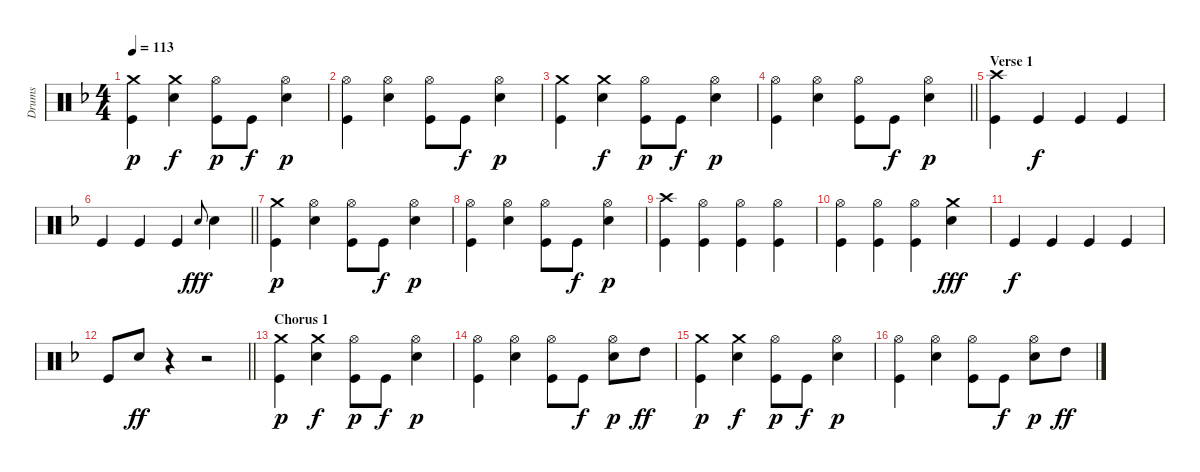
\track ("Drums" "Drums") {instrument percussion}
\staff {score}
\articulation defaults
\ts (4 4)
\tempo 113
\clef neutral
\ks dminor
("Kick (hit)" "Crash medium (hit)").4{dy p} ("Crash medium (hit)" "Electric Snare (hit)").4{dy f} ("Kick (hit)" "Hi-Hat (open)").8{dy p} "Kick (hit)".8{dy f} ("Electric Snare (hit)" "Hi-Hat (open)").4{dy p} |
("Kick (hit)" "Hi-Hat (open)").4 ("Hi-Hat (open)" "Electric Snare (hit)").4 ("Kick (hit)" "Hi-Hat (open)").8 "Kick (hit)".8{dy f} ("Electric Snare (hit)" "Hi-Hat (open)").4{dy p} |
("Kick (hit)" "Crash medium (hit)").4 ("Crash medium (hit)" "Electric Snare (hit)").4{dy f} ("Kick (hit)" "Hi-Hat (open)").8{dy p} "Kick (hit)".8{dy f} ("Electric Snare (hit)" "Hi-Hat (open)").4{dy p} |
\barLineRight lightlight
("Kick (hit)" "Hi-Hat (open)").4 ("Hi-Hat (open)" "Electric Snare (hit)").4 ("Kick (hit)" "Hi-Hat (open)").8 "Kick (hit)".8{dy f} ("Electric Snare (hit)" "Hi-Hat (open)").4{dy p} |
\section ("" "Verse 1")
("Kick (hit)" "Crash high (hit)").4 "Kick (hit)".4{dy f} "Kick (hit)".4 "Kick (hit)".4 |
\barLineRight lightlight "Kick (hit)".4 "Kick (hit)".4 "Kick (hit)".4 "Electric Snare (hit)".8{gr onbeat dy fff} "Electric Snare (hit)".4
|
("Kick (hit)" "Crash medium (hit)").4{dy p} ("Hi-Hat (open)" "Electric Snare (hit)").4 ("Kick (hit)" "Hi-Hat (open)").8 "Kick (hit)".8{dy f} ("Electric Snare (hit)" "Hi-Hat (open)").4{dy p} |
("Kick (hit)" "Hi-Hat (open)").4 ("Hi-Hat (open)" "Electric Snare (hit)").4 ("Kick (hit)" "Hi-Hat (open)").8 "Kick (hit)".8{dy f} ("Electric Snare (hit)" "Hi-Hat (open)").4{dy p} |
("Kick (hit)" "Crash high (hit)").4 ("Kick (hit)" "Hi-Hat (open)").4 ("Kick (hit)" "Hi-Hat (open)").4 ("Kick (hit)" "Hi-Hat (open)").4 |
("Kick (hit)" "Hi-Hat (open)").4 ("Kick (hit)" "Hi-Hat (open)").4 ("Kick (hit)" "Hi-Hat (open)").4 ("Crash medium (hit)" "Electric Snare (hit)").4{dy fff} |
"Kick (hit)".4{dy f} "Kick (hit)".4 "Kick (hit)".4 "Kick (hit)".4 |
\barLineRight lightlight "Kick (hit)".8 "Electric Snare (hit)".8{dy ff}
r.4 r.2 |
\section ("" "Chorus 1")
("Kick (hit)" "Crash medium (hit)").4{dy p} ("Crash medium (hit)" "Electric Snare (hit)").4{dy f} ("Kick (hit)" "Hi-Hat (open)").8{dy p} "Kick (hit)".8{dy f} ("Electric Snare (hit)" "Hi-Hat (open)").4{dy p} |
("Kick (hit)" "Hi-Hat (open)").4 ("Hi-Hat (open)" "Electric Snare (hit)").4 ("Kick (hit)" "Hi-Hat (open)").8 "Kick (hit)".8{dy f} ("Electric Snare (hit)" "Hi-Hat (open)").8{dy p} "High Tom (hit)".8{dy ff} |
("Kick (hit)" "Crash medium (hit)").4{dy p} ("Crash medium (hit)" "Electric Snare (hit)").4{dy f} ("Kick (hit)" "Hi-Hat (open)").8{dy p} "Kick (hit)".8{dy f} ("Electric Snare (hit)" "Hi-Hat (open)").4{dy p} |
("Kick (hit)" "Hi-Hat (open)").4 ("Hi-Hat (open)" "Electric Snare (hit)").4 ("Kick (hit)" "Hi-Hat (open)").8 "Kick (hit)".8{dy f} ("Electric Snare (hit)" "Hi-Hat (open)").8{dy p} "High Tom (hit)".8{dy ff}
